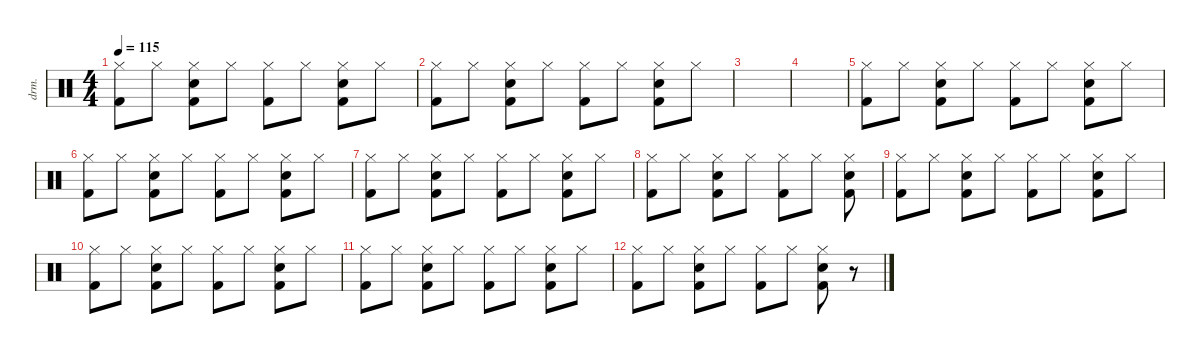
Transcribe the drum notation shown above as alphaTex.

\defaultSystemsLayout 4
\hideDynamics
\bracketExtendMode nobrackets
\track ("Drumkit" "drm.") {instrument percussion}
\staff {score}
\articulation defaults
\ts (4 4)
\tempo 115
\clef neutral
\ks c
("Kick (hit) 2" "Hi-Hat (closed)").8{dy mf beam Down} "Hi-Hat (closed)".8{beam Down} ("Kick (hit) 2" "Electric Snare (hit)" "Hi-Hat (closed)").8{beam Down} "Hi-Hat (closed)".8{beam Down} ("Kick (hit) 2" "Hi-Hat (closed)").8{beam Down} "Hi-Hat (closed)".8{beam Down} ("Kick (hit) 2" "Electric Snare (hit)" "Hi-Hat (closed)").8{beam Down} "Hi-Hat (closed)".8{beam Down} |
("Kick (hit) 2" "Hi-Hat (closed)").8{beam Down} "Hi-Hat (closed)".8{beam Down} ("Kick (hit) 2" "Electric Snare (hit)" "Hi-Hat (closed)").8{beam Down} "Hi-Hat (closed)".8{beam Down} ("Kick (hit) 2" "Hi-Hat (closed)").8{beam Down} "Hi-Hat (closed)".8{beam Down} ("Kick (hit) 2" "Electric Snare (hit)" "Hi-Hat (closed)").8{beam Down} "Hi-Hat (closed)".8{beam Down} |
|
|
("Kick (hit) 2" "Hi-Hat (closed)").8{beam Down} "Hi-Hat (closed)".8{beam Down} ("Kick (hit) 2" "Electric Snare (hit)" "Hi-Hat (closed)").8{beam Down} "Hi-Hat (closed)".8{beam Down} ("Kick (hit) 2" "Hi-Hat (closed)").8{beam Down} "Hi-Hat (closed)".8{beam Down} ("Kick (hit) 2" "Electric Snare (hit)" "Hi-Hat (closed)").8{beam Down} "Hi-Hat (closed)".8{beam Down} |
("Kick (hit) 2" "Hi-Hat (closed)").8{beam Down} "Hi-Hat (closed)".8{beam Down} ("Kick (hit) 2" "Electric Snare (hit)" "Hi-Hat (closed)").8{beam Down} "Hi-Hat (closed)".8{beam Down} ("Kick (hit) 2" "Hi-Hat (closed)").8{beam Down} "Hi-Hat (closed)".8{beam Down} ("Kick (hit) 2" "Electric Snare (hit)" "Hi-Hat (closed)").8{beam Down} "Hi-Hat (closed)".8{beam Down} |
("Kick (hit) 2" "Hi-Hat (closed)").8{beam Down} "Hi-Hat (closed)".8{beam Down} ("Kick (hit) 2" "Electric Snare (hit)" "Hi-Hat (closed)").8{beam Down} "Hi-Hat (closed)".8{beam Down} ("Kick (hit) 2" "Hi-Hat (closed)").8{beam Down} "Hi-Hat (closed)".8{beam Down} ("Kick (hit) 2" "Electric Snare (hit)" "Hi-Hat (closed)").8{beam Down} "Hi-Hat (closed)".8{beam Down} |
("Kick (hit) 2" "Hi-Hat (closed)").8{beam Down} "Hi-Hat (closed)".8{beam Down} ("Kick (hit) 2" "Electric Snare (hit)" "Hi-Hat (closed)").8{beam Down} "Hi-Hat (closed)".8{beam Down} ("Kick (hit) 2" "Hi-Hat (closed)").8{beam Down} "Hi-Hat (closed)".8{beam Down} ("Kick (hit) 2" "Electric Snare (hit)" "Hi-Hat (closed)").8{beam Down} |
("Kick (hit) 2" "Hi-Hat (closed)").8{beam Down} "Hi-Hat (closed)".8{beam Down} ("Kick (hit) 2" "Electric Snare (hit)" "Hi-Hat (closed)").8{beam Down} "Hi-Hat (closed)".8{beam Down} ("Kick (hit) 2" "Hi-Hat (closed)").8{beam Down} "Hi-Hat (closed)".8{beam Down} ("Kick (hit) 2" "Electric Snare (hit)" "Hi-Hat (closed)").8{beam Down} "Hi-Hat (closed)".8{beam Down} |
("Kick (hit) 2" "Hi-Hat (closed)").8{beam Down} "Hi-Hat (closed)".8{beam Down} ("Kick (hit) 2" "Electric Snare (hit)" "Hi-Hat (closed)").8{beam Down} "Hi-Hat (closed)".8{beam Down} ("Kick (hit) 2" "Hi-Hat (closed)").8{beam Down} "Hi-Hat (closed)".8{beam Down} ("Kick (hit) 2" "Electric Snare (hit)" "Hi-Hat (closed)").8{beam Down} "Hi-Hat (closed)".8{beam Down} |
("Kick (hit) 2" "Hi-Hat (closed)").8{beam Down} "Hi-Hat (closed)".8{beam Down} ("Kick (hit) 2" "Electric Snare (hit)" "Hi-Hat (closed)").8{beam Down} "Hi-Hat (closed)".8{beam Down} ("Kick (hit) 2" "Hi-Hat (closed)").8{beam Down} "Hi-Hat (closed)".8{beam Down} ("Kick (hit) 2" "Electric Snare (hit)" "Hi-Hat (closed)").8{beam Down} "Hi-Hat (closed)".8{beam Down} |
("Kick (hit) 2" "Hi-Hat (closed)").8{beam Down} "Hi-Hat (closed)".8{beam Down} ("Kick (hit) 2" "Electric Snare (hit)" "Hi-Hat (closed)").8{beam Down} "Hi-Hat (closed)".8{beam Down} ("Kick (hit) 2" "Hi-Hat (closed)").8{beam Down} "Hi-Hat (closed)".8{beam Down} ("Kick (hit) 2" "Electric Snare (hit)" "Hi-Hat (closed)").8{beam Down} r.8{beam Down}
